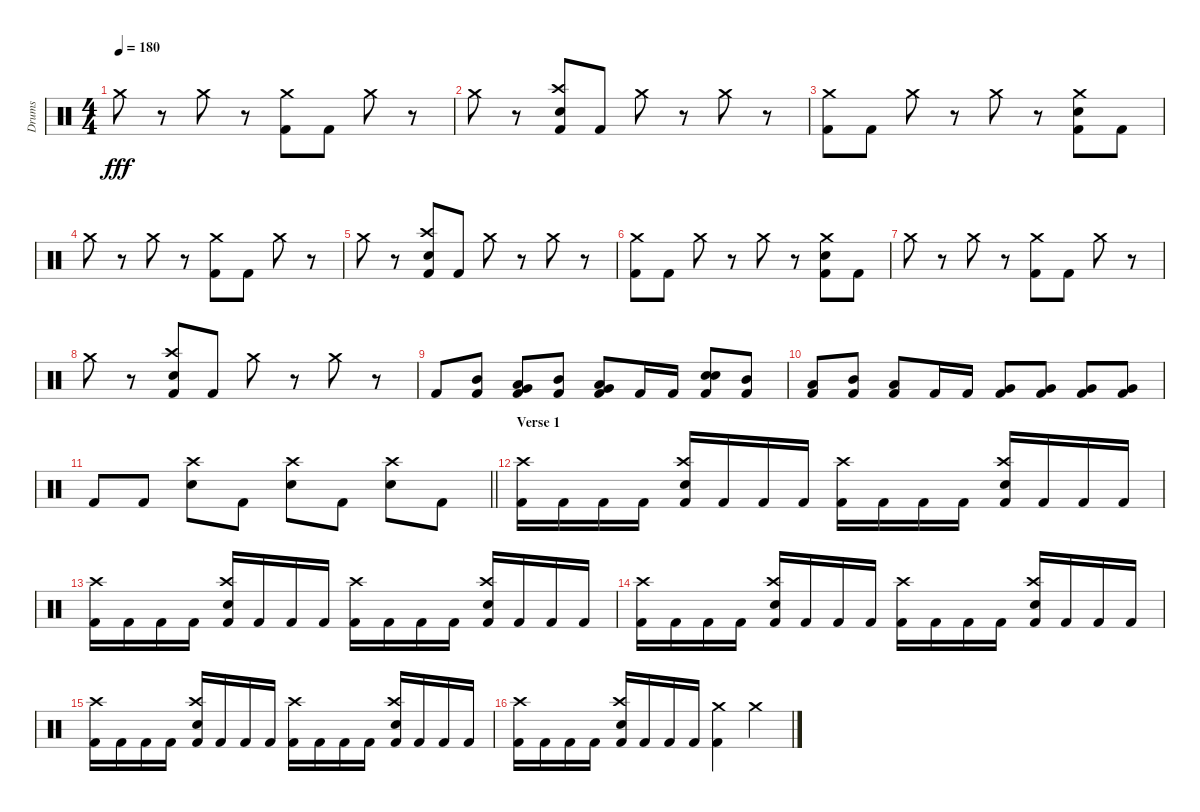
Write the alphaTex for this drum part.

\track ("Drums " "Drums ") {instrument percussion}
\staff {score}
\articulation defaults
\ts (4 4)
\tempo 180
\clef neutral
\ks c "Crash medium (hit)".8{dy fff}
r.8 "Crash medium (hit)".8 r.8 ("Crash medium (hit)" "Kick (hit) 2").8 "Kick (hit) 2".8 "Crash medium (hit)".8 r.8 |
"Crash medium (hit)".8 r.8 ("Crash high (hit)" "Snare (hit) 2" "Kick (hit) 2").8 "Kick (hit) 2".8 "Crash medium (hit)".8 r.8 "Crash medium (hit)".8 r.8 |
("Crash medium (hit)" "Kick (hit) 2").8 "Kick (hit) 2".8 "Crash medium (hit)".8 r.8 "Crash medium (hit)".8 r.8 ("Crash medium (hit)" "Snare (hit) 2" "Kick (hit) 2").8 "Kick (hit) 2".8 |
"Crash medium (hit)".8 r.8 "Crash medium (hit)".8 r.8 ("Crash medium (hit)" "Kick (hit) 2").8 "Kick (hit) 2".8 "Crash medium (hit)".8 r.8 |
"Crash medium (hit)".8 r.8 ("Crash high (hit)" "Snare (hit) 2" "Kick (hit) 2").8 "Kick (hit) 2".8 "Crash medium (hit)".8 r.8 "Crash medium (hit)".8 r.8 |
("Crash medium (hit)" "Kick (hit) 2").8 "Kick (hit) 2".8 "Crash medium (hit)".8 r.8 "Crash medium (hit)".8 r.8 ("Crash medium (hit)" "Snare (hit) 2" "Kick (hit) 2").8 "Kick (hit) 2".8 |
"Crash medium (hit)".8 r.8 "Crash medium (hit)".8 r.8 ("Crash medium (hit)" "Kick (hit) 2").8 "Kick (hit) 2".8 "Crash medium (hit)".8 r.8 |
"Crash medium (hit)".8 r.8 ("Crash high (hit)" "Snare (hit) 2" "Kick (hit) 2").8 "Kick (hit) 2".8 "Crash medium (hit)".8 r.8 "Crash medium (hit)".8 r.8 |
"Kick (hit) 2".8 ("Mid Tom (hit)" "Kick (hit) 2").8 ("Very Low Tom (hit)" "Low Tom (hit)" "Kick (hit) 2").8 ("Mid Tom (hit)" "Kick (hit) 2").8 ("Very Low Tom (hit)" "Low Tom (hit)" "Kick (hit) 2").8 "Kick (hit) 2".16 "Kick (hit) 2".16 ("Electric Snare (hit)" "Snare (hit) 2" "Kick (hit) 2").8 ("Mid Tom (hit)" "Kick (hit) 2").8 |
("Low Tom (hit)" "Kick (hit) 2").8 ("Mid Tom (hit)" "Kick (hit) 2").8 ("Low Tom (hit)" "Kick (hit) 2").8 "Kick (hit) 2".16 "Kick (hit) 2".16 ("Very Low Tom (hit)" "Kick (hit) 2").8 ("Very Low Tom (hit)" "Kick (hit) 2").8 ("Very Low Tom (hit)" "Kick (hit) 2").8 ("Very Low Tom (hit)" "Kick (hit) 2").8 |
\barLineRight lightlight "Kick (hit) 2".8 "Kick (hit) 2".8
("Crash high (hit)" "Snare (hit) 2").8 "Kick (hit) 2".8 ("Crash high (hit)" "Snare (hit) 2").8 "Kick (hit) 2".8 ("Crash high (hit)" "Snare (hit) 2").8 "Kick (hit) 2".8 |
\section ("" "Verse 1")
("Crash high (hit)" "Kick (hit) 2").16 "Kick (hit) 2".16 "Kick (hit) 2".16 "Kick (hit) 2".16 ("Crash high (hit)" "Snare (hit) 2" "Kick (hit) 2").16 "Kick (hit) 2".16 "Kick (hit) 2".16 "Kick (hit) 2".16 ("Crash high (hit)" "Kick (hit) 2").16 "Kick (hit) 2".16 "Kick (hit) 2".16 "Kick (hit) 2".16 ("Crash high (hit)" "Snare (hit) 2" "Kick (hit) 2").16 "Kick (hit) 2".16 "Kick (hit) 2".16 "Kick (hit) 2".16 |
("Crash high (hit)" "Kick (hit) 2").16 "Kick (hit) 2".16 "Kick (hit) 2".16 "Kick (hit) 2".16 ("Crash high (hit)" "Snare (hit) 2" "Kick (hit) 2").16 "Kick (hit) 2".16 "Kick (hit) 2".16 "Kick (hit) 2".16 ("Crash high (hit)" "Kick (hit) 2").16 "Kick (hit) 2".16 "Kick (hit) 2".16 "Kick (hit) 2".16 ("Crash high (hit)" "Snare (hit) 2" "Kick (hit) 2").16 "Kick (hit) 2".16 "Kick (hit) 2".16 "Kick (hit) 2".16 |
("Crash high (hit)" "Kick (hit) 2").16 "Kick (hit) 2".16 "Kick (hit) 2".16 "Kick (hit) 2".16 ("Crash high (hit)" "Snare (hit) 2" "Kick (hit) 2").16 "Kick (hit) 2".16 "Kick (hit) 2".16 "Kick (hit) 2".16 ("Crash high (hit)" "Kick (hit) 2").16 "Kick (hit) 2".16 "Kick (hit) 2".16 "Kick (hit) 2".16 ("Crash high (hit)" "Snare (hit) 2" "Kick (hit) 2").16 "Kick (hit) 2".16 "Kick (hit) 2".16 "Kick (hit) 2".16 |
("Crash high (hit)" "Kick (hit) 2").16 "Kick (hit) 2".16 "Kick (hit) 2".16 "Kick (hit) 2".16 ("Crash high (hit)" "Snare (hit) 2" "Kick (hit) 2").16 "Kick (hit) 2".16 "Kick (hit) 2".16 "Kick (hit) 2".16 ("Crash high (hit)" "Kick (hit) 2").16 "Kick (hit) 2".16 "Kick (hit) 2".16 "Kick (hit) 2".16 ("Crash high (hit)" "Snare (hit) 2" "Kick (hit) 2").16 "Kick (hit) 2".16 "Kick (hit) 2".16 "Kick (hit) 2".16 |
("Crash high (hit)" "Kick (hit) 2").16 "Kick (hit) 2".16 "Kick (hit) 2".16 "Kick (hit) 2".16 ("Crash high (hit)" "Snare (hit) 2" "Kick (hit) 2").16 "Kick (hit) 2".16 "Kick (hit) 2".16 "Kick (hit) 2".16 ("Crash medium (hit)" "Kick (hit) 2").4 "Crash medium (hit)".4
